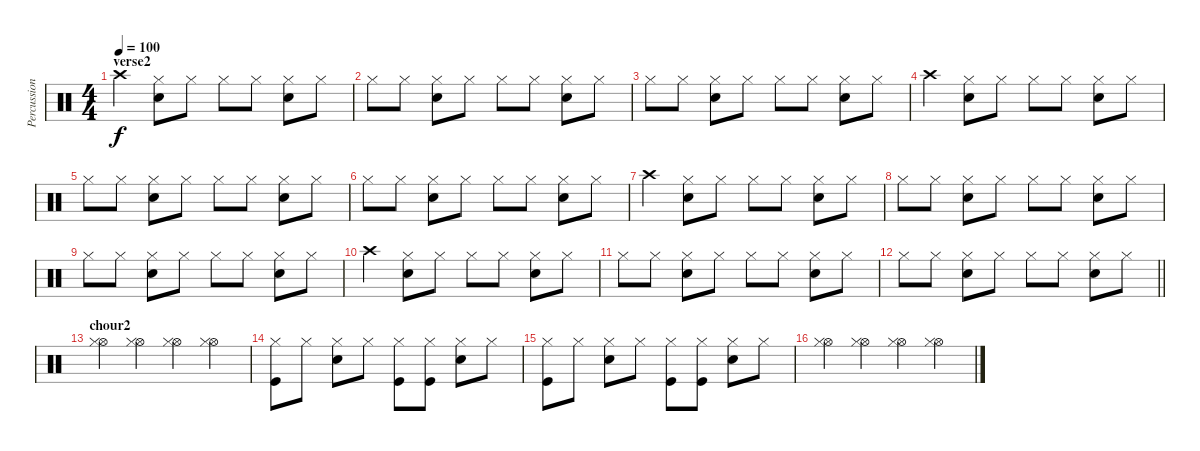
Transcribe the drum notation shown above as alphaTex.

\track ("Percussioni" "Percussion") {instrument percussion}
\staff {score}
\articulation defaults
\ts (4 4)
\section ("" "verse2")
\tempo 100
\clef neutral
\ks c "Crash high (hit)".4{dy f}
("Hi-Hat (closed)" "Snare (hit) 2").8 "Hi-Hat (closed)".8 "Hi-Hat (closed)".8 "Hi-Hat (closed)".8 ("Hi-Hat (closed)" "Snare (hit) 2").8 "Hi-Hat (closed)".8 |
"Hi-Hat (closed)".8 "Hi-Hat (closed)".8 ("Hi-Hat (closed)" "Snare (hit) 2").8 "Hi-Hat (closed)".8 "Hi-Hat (closed)".8 "Hi-Hat (closed)".8 ("Hi-Hat (closed)" "Snare (hit) 2").8 "Hi-Hat (closed)".8 |
"Hi-Hat (closed)".8 "Hi-Hat (closed)".8 ("Hi-Hat (closed)" "Snare (hit) 2").8 "Hi-Hat (closed)".8 "Hi-Hat (closed)".8 "Hi-Hat (closed)".8 ("Hi-Hat (closed)" "Snare (hit) 2").8 "Hi-Hat (closed)".8 |
"Crash high (hit)".4 ("Hi-Hat (closed)" "Snare (hit) 2").8 "Hi-Hat (closed)".8 "Hi-Hat (closed)".8 "Hi-Hat (closed)".8 ("Hi-Hat (closed)" "Snare (hit) 2").8 "Hi-Hat (closed)".8 |
"Hi-Hat (closed)".8 "Hi-Hat (closed)".8 ("Hi-Hat (closed)" "Snare (hit) 2").8 "Hi-Hat (closed)".8 "Hi-Hat (closed)".8 "Hi-Hat (closed)".8 ("Hi-Hat (closed)" "Snare (hit) 2").8 "Hi-Hat (closed)".8 |
"Hi-Hat (closed)".8 "Hi-Hat (closed)".8 ("Hi-Hat (closed)" "Snare (hit) 2").8 "Hi-Hat (closed)".8 "Hi-Hat (closed)".8 "Hi-Hat (closed)".8 ("Hi-Hat (closed)" "Snare (hit) 2").8 "Hi-Hat (closed)".8 |
"Crash high (hit)".4 ("Hi-Hat (closed)" "Snare (hit) 2").8 "Hi-Hat (closed)".8 "Hi-Hat (closed)".8 "Hi-Hat (closed)".8 ("Hi-Hat (closed)" "Snare (hit) 2").8 "Hi-Hat (closed)".8 |
"Hi-Hat (closed)".8 "Hi-Hat (closed)".8 ("Hi-Hat (closed)" "Snare (hit) 2").8 "Hi-Hat (closed)".8 "Hi-Hat (closed)".8 "Hi-Hat (closed)".8 ("Hi-Hat (closed)" "Snare (hit) 2").8 "Hi-Hat (closed)".8 |
"Hi-Hat (closed)".8 "Hi-Hat (closed)".8 ("Hi-Hat (closed)" "Snare (hit) 2").8 "Hi-Hat (closed)".8 "Hi-Hat (closed)".8 "Hi-Hat (closed)".8 ("Hi-Hat (closed)" "Snare (hit) 2").8 "Hi-Hat (closed)".8 |
"Crash high (hit)".4 ("Hi-Hat (closed)" "Snare (hit) 2").8 "Hi-Hat (closed)".8 "Hi-Hat (closed)".8 "Hi-Hat (closed)".8 ("Hi-Hat (closed)" "Snare (hit) 2").8 "Hi-Hat (closed)".8 |
"Hi-Hat (closed)".8 "Hi-Hat (closed)".8 ("Hi-Hat (closed)" "Snare (hit) 2").8 "Hi-Hat (closed)".8 "Hi-Hat (closed)".8 "Hi-Hat (closed)".8 ("Hi-Hat (closed)" "Snare (hit) 2").8 "Hi-Hat (closed)".8 |
\barLineRight lightlight "Hi-Hat (closed)".8 "Hi-Hat (closed)".8
("Hi-Hat (closed)" "Snare (hit) 2").8 "Hi-Hat (closed)".8 "Hi-Hat (closed)".8 "Hi-Hat (closed)".8 ("Hi-Hat (closed)" "Snare (hit) 2").8 "Hi-Hat (closed)".8 |
\section ("" "chour2")
("Hi-Hat (open)" "Hi-Hat (closed)").4 ("Hi-Hat (open)" "Hi-Hat (closed)").4 ("Hi-Hat (open)" "Hi-Hat (closed)").4 ("Hi-Hat (open)" "Hi-Hat (closed)").4 |
("Hi-Hat (closed)" "Kick (hit)").8 "Hi-Hat (closed)".8 ("Hi-Hat (closed)" "Snare (hit) 2").8 "Hi-Hat (closed)".8 ("Hi-Hat (closed)" "Kick (hit)").8 ("Hi-Hat (closed)" "Kick (hit)").8 ("Hi-Hat (closed)" "Snare (hit) 2").8 "Hi-Hat (closed)".8 |
("Hi-Hat (closed)" "Kick (hit)").8 "Hi-Hat (closed)".8 ("Hi-Hat (closed)" "Snare (hit) 2").8 "Hi-Hat (closed)".8 ("Hi-Hat (closed)" "Kick (hit)").8 ("Hi-Hat (closed)" "Kick (hit)").8 ("Hi-Hat (closed)" "Snare (hit) 2").8 "Hi-Hat (closed)".8 |
("Hi-Hat (open)" "Hi-Hat (closed)").4 ("Hi-Hat (open)" "Hi-Hat (closed)").4 ("Hi-Hat (open)" "Hi-Hat (closed)").4 ("Hi-Hat (open)" "Hi-Hat (closed)").4
